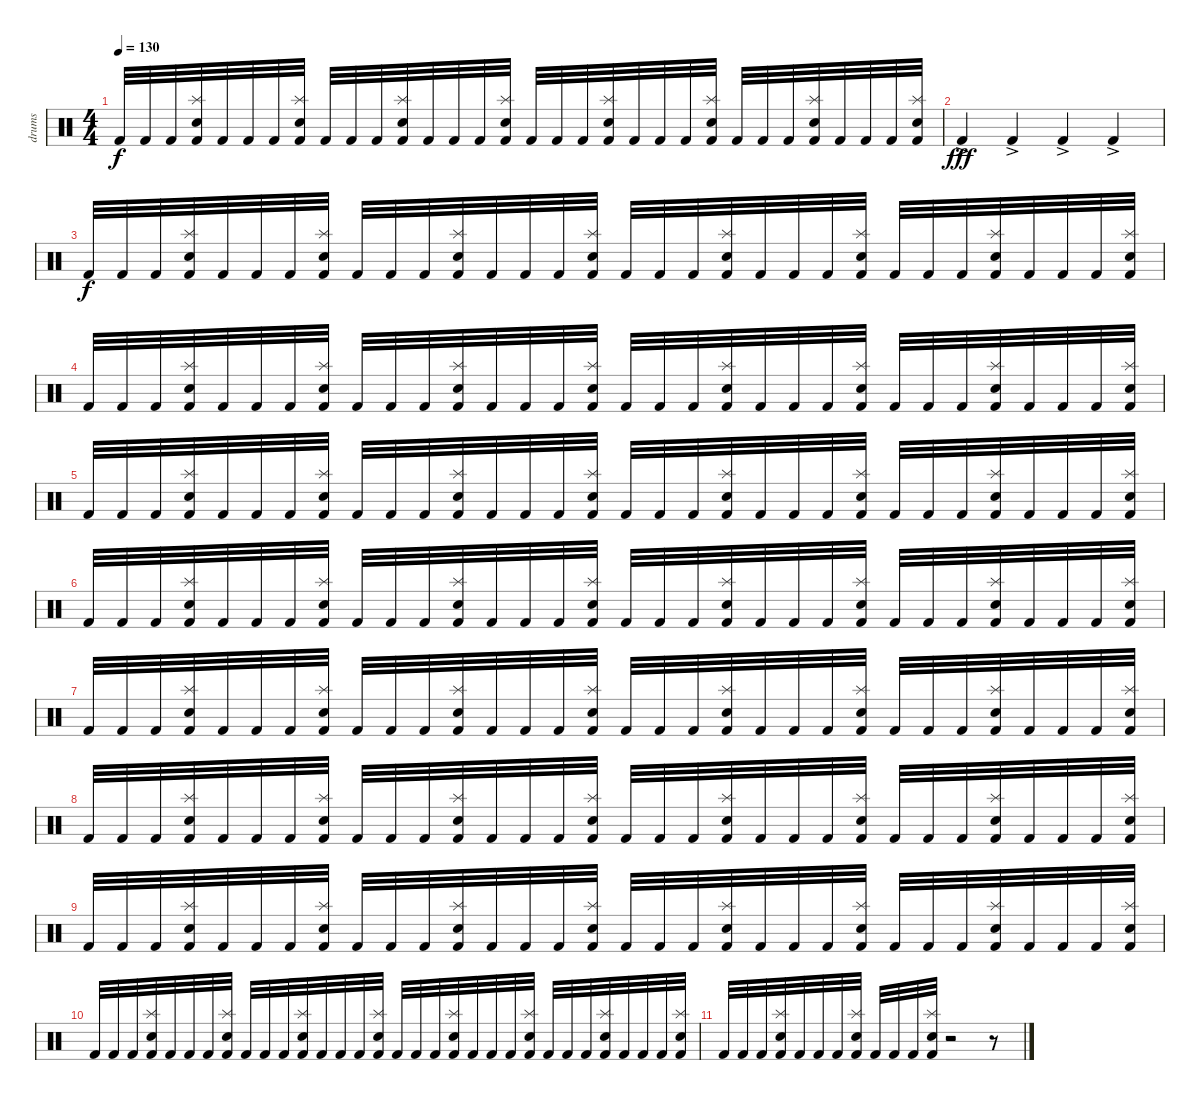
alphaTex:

\track ("drums" "drums") {instrument percussion}
\staff {score}
\articulation defaults
\ts (4 4)
\tempo 130
\clef neutral
\ks c "Kick (hit) 2".32{dy f} "Kick (hit) 2".32 "Kick (hit) 2".32
("Splash (hit)" "Electric Snare (hit)" "Kick (hit) 2").32 "Kick (hit) 2".32 "Kick (hit) 2".32 "Kick (hit) 2".32 ("Splash (hit)" "Electric Snare (hit)" "Kick (hit) 2").32 "Kick (hit) 2".32 "Kick (hit) 2".32 "Kick (hit) 2".32 ("Splash (hit)" "Electric Snare (hit)" "Kick (hit) 2").32 "Kick (hit) 2".32 "Kick (hit) 2".32 "Kick (hit) 2".32 ("Splash (hit)" "Electric Snare (hit)" "Kick (hit) 2").32 "Kick (hit) 2".32 "Kick (hit) 2".32 "Kick (hit) 2".32 ("Splash (hit)" "Electric Snare (hit)" "Kick (hit) 2").32 "Kick (hit) 2".32 "Kick (hit) 2".32 "Kick (hit) 2".32 ("Splash (hit)" "Electric Snare (hit)" "Kick (hit) 2").32 "Kick (hit) 2".32 "Kick (hit) 2".32 "Kick (hit) 2".32 ("Splash (hit)" "Electric Snare (hit)" "Kick (hit) 2").32 "Kick (hit) 2".32 "Kick (hit) 2".32 "Kick (hit) 2".32 ("Splash (hit)" "Electric Snare (hit)" "Kick (hit) 2").32 |
"Kick (hit) 2"{ac}.4{dy fff} "Kick (hit) 2"{ac}.4 "Kick (hit) 2"{ac}.4 "Kick (hit) 2"{ac}.4 |
"Kick (hit) 2".32{dy f} "Kick (hit) 2".32 "Kick (hit) 2".32 ("Splash (hit)" "Electric Snare (hit)" "Kick (hit) 2").32 "Kick (hit) 2".32 "Kick (hit) 2".32 "Kick (hit) 2".32 ("Splash (hit)" "Electric Snare (hit)" "Kick (hit) 2").32 "Kick (hit) 2".32 "Kick (hit) 2".32 "Kick (hit) 2".32 ("Splash (hit)" "Electric Snare (hit)" "Kick (hit) 2").32 "Kick (hit) 2".32 "Kick (hit) 2".32 "Kick (hit) 2".32 ("Splash (hit)" "Electric Snare (hit)" "Kick (hit) 2").32 "Kick (hit) 2".32 "Kick (hit) 2".32 "Kick (hit) 2".32 ("Splash (hit)" "Electric Snare (hit)" "Kick (hit) 2").32 "Kick (hit) 2".32 "Kick (hit) 2".32 "Kick (hit) 2".32 ("Splash (hit)" "Electric Snare (hit)" "Kick (hit) 2").32 "Kick (hit) 2".32 "Kick (hit) 2".32 "Kick (hit) 2".32 ("Splash (hit)" "Electric Snare (hit)" "Kick (hit) 2").32 "Kick (hit) 2".32 "Kick (hit) 2".32 "Kick (hit) 2".32 ("Splash (hit)" "Electric Snare (hit)" "Kick (hit) 2").32 |
"Kick (hit) 2".32 "Kick (hit) 2".32 "Kick (hit) 2".32 ("Splash (hit)" "Electric Snare (hit)" "Kick (hit) 2").32 "Kick (hit) 2".32 "Kick (hit) 2".32 "Kick (hit) 2".32 ("Splash (hit)" "Electric Snare (hit)" "Kick (hit) 2").32 "Kick (hit) 2".32 "Kick (hit) 2".32 "Kick (hit) 2".32 ("Splash (hit)" "Electric Snare (hit)" "Kick (hit) 2").32 "Kick (hit) 2".32 "Kick (hit) 2".32 "Kick (hit) 2".32 ("Splash (hit)" "Electric Snare (hit)" "Kick (hit) 2").32 "Kick (hit) 2".32 "Kick (hit) 2".32 "Kick (hit) 2".32 ("Splash (hit)" "Electric Snare (hit)" "Kick (hit) 2").32 "Kick (hit) 2".32 "Kick (hit) 2".32 "Kick (hit) 2".32 ("Splash (hit)" "Electric Snare (hit)" "Kick (hit) 2").32 "Kick (hit) 2".32 "Kick (hit) 2".32 "Kick (hit) 2".32 ("Splash (hit)" "Electric Snare (hit)" "Kick (hit) 2").32 "Kick (hit) 2".32 "Kick (hit) 2".32 "Kick (hit) 2".32 ("Splash (hit)" "Electric Snare (hit)" "Kick (hit) 2").32 |
"Kick (hit) 2".32 "Kick (hit) 2".32 "Kick (hit) 2".32 ("Splash (hit)" "Electric Snare (hit)" "Kick (hit) 2").32 "Kick (hit) 2".32 "Kick (hit) 2".32 "Kick (hit) 2".32 ("Splash (hit)" "Electric Snare (hit)" "Kick (hit) 2").32 "Kick (hit) 2".32 "Kick (hit) 2".32 "Kick (hit) 2".32 ("Splash (hit)" "Electric Snare (hit)" "Kick (hit) 2").32 "Kick (hit) 2".32 "Kick (hit) 2".32 "Kick (hit) 2".32 ("Splash (hit)" "Electric Snare (hit)" "Kick (hit) 2").32 "Kick (hit) 2".32 "Kick (hit) 2".32 "Kick (hit) 2".32 ("Splash (hit)" "Electric Snare (hit)" "Kick (hit) 2").32 "Kick (hit) 2".32 "Kick (hit) 2".32 "Kick (hit) 2".32 ("Splash (hit)" "Electric Snare (hit)" "Kick (hit) 2").32 "Kick (hit) 2".32 "Kick (hit) 2".32 "Kick (hit) 2".32 ("Splash (hit)" "Electric Snare (hit)" "Kick (hit) 2").32 "Kick (hit) 2".32 "Kick (hit) 2".32 "Kick (hit) 2".32 ("Splash (hit)" "Electric Snare (hit)" "Kick (hit) 2").32 |
"Kick (hit) 2".32 "Kick (hit) 2".32 "Kick (hit) 2".32 ("Splash (hit)" "Electric Snare (hit)" "Kick (hit) 2").32 "Kick (hit) 2".32 "Kick (hit) 2".32 "Kick (hit) 2".32 ("Splash (hit)" "Electric Snare (hit)" "Kick (hit) 2").32 "Kick (hit) 2".32 "Kick (hit) 2".32 "Kick (hit) 2".32 ("Splash (hit)" "Electric Snare (hit)" "Kick (hit) 2").32 "Kick (hit) 2".32 "Kick (hit) 2".32 "Kick (hit) 2".32 ("Splash (hit)" "Electric Snare (hit)" "Kick (hit) 2").32 "Kick (hit) 2".32 "Kick (hit) 2".32 "Kick (hit) 2".32 ("Splash (hit)" "Electric Snare (hit)" "Kick (hit) 2").32 "Kick (hit) 2".32 "Kick (hit) 2".32 "Kick (hit) 2".32 ("Splash (hit)" "Electric Snare (hit)" "Kick (hit) 2").32 "Kick (hit) 2".32 "Kick (hit) 2".32 "Kick (hit) 2".32 ("Splash (hit)" "Electric Snare (hit)" "Kick (hit) 2").32 "Kick (hit) 2".32 "Kick (hit) 2".32 "Kick (hit) 2".32 ("Splash (hit)" "Electric Snare (hit)" "Kick (hit) 2").32 |
"Kick (hit) 2".32 "Kick (hit) 2".32 "Kick (hit) 2".32 ("Splash (hit)" "Electric Snare (hit)" "Kick (hit) 2").32 "Kick (hit) 2".32 "Kick (hit) 2".32 "Kick (hit) 2".32 ("Splash (hit)" "Electric Snare (hit)" "Kick (hit) 2").32 "Kick (hit) 2".32 "Kick (hit) 2".32 "Kick (hit) 2".32 ("Splash (hit)" "Electric Snare (hit)" "Kick (hit) 2").32 "Kick (hit) 2".32 "Kick (hit) 2".32 "Kick (hit) 2".32 ("Splash (hit)" "Electric Snare (hit)" "Kick (hit) 2").32 "Kick (hit) 2".32 "Kick (hit) 2".32 "Kick (hit) 2".32 ("Splash (hit)" "Electric Snare (hit)" "Kick (hit) 2").32 "Kick (hit) 2".32 "Kick (hit) 2".32 "Kick (hit) 2".32 ("Splash (hit)" "Electric Snare (hit)" "Kick (hit) 2").32 "Kick (hit) 2".32 "Kick (hit) 2".32 "Kick (hit) 2".32 ("Splash (hit)" "Electric Snare (hit)" "Kick (hit) 2").32 "Kick (hit) 2".32 "Kick (hit) 2".32 "Kick (hit) 2".32 ("Splash (hit)" "Electric Snare (hit)" "Kick (hit) 2").32 |
"Kick (hit) 2".32 "Kick (hit) 2".32 "Kick (hit) 2".32 ("Splash (hit)" "Electric Snare (hit)" "Kick (hit) 2").32 "Kick (hit) 2".32 "Kick (hit) 2".32 "Kick (hit) 2".32 ("Splash (hit)" "Electric Snare (hit)" "Kick (hit) 2").32 "Kick (hit) 2".32 "Kick (hit) 2".32 "Kick (hit) 2".32 ("Splash (hit)" "Electric Snare (hit)" "Kick (hit) 2").32 "Kick (hit) 2".32 "Kick (hit) 2".32 "Kick (hit) 2".32 ("Splash (hit)" "Electric Snare (hit)" "Kick (hit) 2").32 "Kick (hit) 2".32 "Kick (hit) 2".32 "Kick (hit) 2".32 ("Splash (hit)" "Electric Snare (hit)" "Kick (hit) 2").32 "Kick (hit) 2".32 "Kick (hit) 2".32 "Kick (hit) 2".32 ("Splash (hit)" "Electric Snare (hit)" "Kick (hit) 2").32 "Kick (hit) 2".32 "Kick (hit) 2".32 "Kick (hit) 2".32 ("Splash (hit)" "Electric Snare (hit)" "Kick (hit) 2").32 "Kick (hit) 2".32 "Kick (hit) 2".32 "Kick (hit) 2".32 ("Splash (hit)" "Electric Snare (hit)" "Kick (hit) 2").32 |
"Kick (hit) 2".32 "Kick (hit) 2".32 "Kick (hit) 2".32 ("Splash (hit)" "Electric Snare (hit)" "Kick (hit) 2").32 "Kick (hit) 2".32 "Kick (hit) 2".32 "Kick (hit) 2".32 ("Splash (hit)" "Electric Snare (hit)" "Kick (hit) 2").32 "Kick (hit) 2".32 "Kick (hit) 2".32 "Kick (hit) 2".32 ("Splash (hit)" "Electric Snare (hit)" "Kick (hit) 2").32 "Kick (hit) 2".32 "Kick (hit) 2".32 "Kick (hit) 2".32 ("Splash (hit)" "Electric Snare (hit)" "Kick (hit) 2").32 "Kick (hit) 2".32 "Kick (hit) 2".32 "Kick (hit) 2".32 ("Splash (hit)" "Electric Snare (hit)" "Kick (hit) 2").32 "Kick (hit) 2".32 "Kick (hit) 2".32 "Kick (hit) 2".32 ("Splash (hit)" "Electric Snare (hit)" "Kick (hit) 2").32 "Kick (hit) 2".32 "Kick (hit) 2".32 "Kick (hit) 2".32 ("Splash (hit)" "Electric Snare (hit)" "Kick (hit) 2").32 "Kick (hit) 2".32 "Kick (hit) 2".32 "Kick (hit) 2".32 ("Splash (hit)" "Electric Snare (hit)" "Kick (hit) 2").32 |
"Kick (hit) 2".32 "Kick (hit) 2".32 "Kick (hit) 2".32 ("Splash (hit)" "Electric Snare (hit)" "Kick (hit) 2").32 "Kick (hit) 2".32 "Kick (hit) 2".32 "Kick (hit) 2".32 ("Splash (hit)" "Electric Snare (hit)" "Kick (hit) 2").32 "Kick (hit) 2".32 "Kick (hit) 2".32 "Kick (hit) 2".32 ("Splash (hit)" "Electric Snare (hit)" "Kick (hit) 2").32 "Kick (hit) 2".32 "Kick (hit) 2".32 "Kick (hit) 2".32 ("Splash (hit)" "Electric Snare (hit)" "Kick (hit) 2").32 "Kick (hit) 2".32 "Kick (hit) 2".32 "Kick (hit) 2".32 ("Splash (hit)" "Electric Snare (hit)" "Kick (hit) 2").32 "Kick (hit) 2".32 "Kick (hit) 2".32 "Kick (hit) 2".32 ("Splash (hit)" "Electric Snare (hit)" "Kick (hit) 2").32 "Kick (hit) 2".32 "Kick (hit) 2".32 "Kick (hit) 2".32 ("Splash (hit)" "Electric Snare (hit)" "Kick (hit) 2").32 "Kick (hit) 2".32 "Kick (hit) 2".32 "Kick (hit) 2".32 ("Splash (hit)" "Electric Snare (hit)" "Kick (hit) 2").32 |
"Kick (hit) 2".32 "Kick (hit) 2".32 "Kick (hit) 2".32 ("Splash (hit)" "Electric Snare (hit)" "Kick (hit) 2").32 "Kick (hit) 2".32 "Kick (hit) 2".32 "Kick (hit) 2".32 ("Splash (hit)" "Electric Snare (hit)" "Kick (hit) 2").32 "Kick (hit) 2".32 "Kick (hit) 2".32 "Kick (hit) 2".32 ("Splash (hit)" "Electric Snare (hit)" "Kick (hit) 2").32 r.2 r.8
